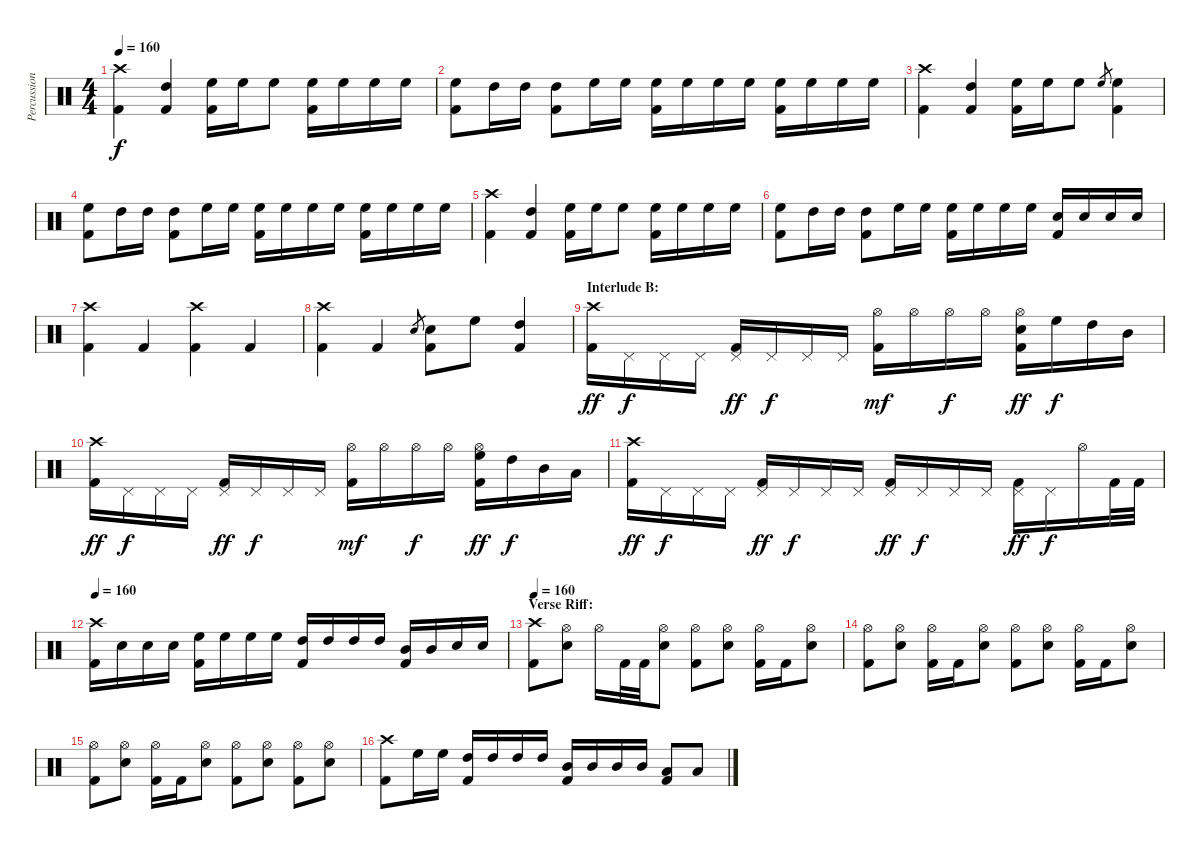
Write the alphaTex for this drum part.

\track ("Percussion" "Percussion") {instrument percussion}
\staff {score}
\articulation defaults
\ts (4 4)
\tempo 160
\clef neutral
\ks c
("Crash high (hit)" "Kick (hit) 2").4{dy f} ("High Tom (hit)" "Kick (hit) 2").4 ("High Floor Tom (hit)" "Kick (hit) 2").16 "High Floor Tom (hit)".16 "High Floor Tom (hit)".8 ("High Floor Tom (hit)" "Kick (hit) 2").16 "High Floor Tom (hit)".16 "High Floor Tom (hit)".16 "High Floor Tom (hit)".16 |
("High Floor Tom (hit)" "Kick (hit) 2").8 "High Tom (hit)".16 "High Tom (hit)".16 ("High Tom (hit)" "Kick (hit) 2").8 "High Floor Tom (hit)".16 "High Floor Tom (hit)".16 ("High Floor Tom (hit)" "Kick (hit) 2").16 "High Floor Tom (hit)".16 "High Floor Tom (hit)".16 "High Floor Tom (hit)".16 ("High Floor Tom (hit)" "Kick (hit) 2").16 "High Floor Tom (hit)".16 "High Floor Tom (hit)".16 "High Floor Tom (hit)".16 |
("Crash high (hit)" "Kick (hit) 2").4 ("High Tom (hit)" "Kick (hit) 2").4 ("High Floor Tom (hit)" "Kick (hit) 2").16 "High Floor Tom (hit)".16 "High Floor Tom (hit)".8 "High Floor Tom (hit)".8{gr} ("High Floor Tom (hit)" "Kick (hit) 2").4 |
("High Floor Tom (hit)" "Kick (hit) 2").8 "High Tom (hit)".16 "High Tom (hit)".16 ("High Tom (hit)" "Kick (hit) 2").8 "High Floor Tom (hit)".16 "High Floor Tom (hit)".16 ("High Floor Tom (hit)" "Kick (hit) 2").16 "High Floor Tom (hit)".16 "High Floor Tom (hit)".16 "High Floor Tom (hit)".16 ("High Floor Tom (hit)" "Kick (hit) 2").16 "High Floor Tom (hit)".16 "High Floor Tom (hit)".16 "High Floor Tom (hit)".16 |
("Crash high (hit)" "Kick (hit) 2").4 ("High Tom (hit)" "Kick (hit) 2").4 ("High Floor Tom (hit)" "Kick (hit) 2").16 "High Floor Tom (hit)".16 "High Floor Tom (hit)".8 ("High Floor Tom (hit)" "Kick (hit) 2").16 "High Floor Tom (hit)".16 "High Floor Tom (hit)".16 "High Floor Tom (hit)".16 |
("High Floor Tom (hit)" "Kick (hit) 2").8 "High Tom (hit)".16 "High Tom (hit)".16 ("High Tom (hit)" "Kick (hit) 2").8 "High Floor Tom (hit)".16 "High Floor Tom (hit)".16 ("High Floor Tom (hit)" "Kick (hit) 2").16 "High Floor Tom (hit)".16 "High Floor Tom (hit)".16 "High Floor Tom (hit)".16 ("Electric Snare (hit)" "Kick (hit) 2").16 "Electric Snare (hit)".16 "Electric Snare (hit)".16 "Electric Snare (hit)".16 |
("Crash high (hit)" "Kick (hit) 2").4 "Kick (hit) 2".4 ("Crash high (hit)" "Kick (hit) 2").4 "Kick (hit) 2".4 |
("Crash high (hit)" "Kick (hit) 2").4 "Kick (hit) 2".4 "Electric Snare (hit)".8{gr} ("Electric Snare (hit)" "Kick (hit) 2").8 "High Floor Tom (hit)".8 ("High Tom (hit)" "Kick (hit) 2").4 |
\section ("" "Interlude B:")
("Crash high (hit)" "Kick (hit) 2").16{dy ff} "Pedal Hi-Hat (hit)".16{dy f} "Pedal Hi-Hat (hit)".16 "Pedal Hi-Hat (hit)".16 ("Pedal Hi-Hat (hit)" "Kick (hit) 2").16{dy ff} "Pedal Hi-Hat (hit)".16{dy f} "Pedal Hi-Hat (hit)".16 "Pedal Hi-Hat (hit)".16 ("Hi-Hat (open)" "Kick (hit) 2").16{dy mf} "Hi-Hat (open)".16 "Hi-Hat (open)".16{dy f} "Hi-Hat (open)".16 ("Hi-Hat (open)" "Electric Snare (hit)" "Kick (hit) 2").16{dy ff} "High Floor Tom (hit)".16{dy f} "High Tom (hit)".16 "Mid Tom (hit)".16 |
("Crash high (hit)" "Kick (hit) 2").16{dy ff} "Pedal Hi-Hat (hit)".16{dy f} "Pedal Hi-Hat (hit)".16 "Pedal Hi-Hat (hit)".16 ("Pedal Hi-Hat (hit)" "Kick (hit) 2").16{dy ff} "Pedal Hi-Hat (hit)".16{dy f} "Pedal Hi-Hat (hit)".16 "Pedal Hi-Hat (hit)".16 ("Hi-Hat (open)" "Kick (hit) 2").16{dy mf} "Hi-Hat (open)".16 "Hi-Hat (open)".16{dy f} "Hi-Hat (open)".16 ("Hi-Hat (open)" "High Floor Tom (hit)" "Kick (hit) 2").16{dy ff} "High Tom (hit)".16{dy f} "Mid Tom (hit)".16 "Low Tom (hit)".16 |
("Crash high (hit)" "Kick (hit) 2").16{dy ff} "Pedal Hi-Hat (hit)".16{dy f} "Pedal Hi-Hat (hit)".16 "Pedal Hi-Hat (hit)".16 ("Pedal Hi-Hat (hit)" "Kick (hit) 2").16{dy ff} "Pedal Hi-Hat (hit)".16{dy f} "Pedal Hi-Hat (hit)".16 "Pedal Hi-Hat (hit)".16 ("Pedal Hi-Hat (hit)" "Kick (hit) 2").16{dy ff} "Pedal Hi-Hat (hit)".16{dy f} "Pedal Hi-Hat (hit)".16 "Pedal Hi-Hat (hit)".16 ("Pedal Hi-Hat (hit)" "Kick (hit) 2").16{dy ff} "Pedal Hi-Hat (hit)".16{dy f} "Hi-Hat (open)".16 "Kick (hit) 2".32 "Kick (hit) 2".32 |
\tempo 160
("Crash high (hit)" "Kick (hit) 2").16 "Electric Snare (hit)".16 "Electric Snare (hit)".16 "Electric Snare (hit)".16 ("High Floor Tom (hit)" "Kick (hit) 2").16 "High Floor Tom (hit)".16 "High Floor Tom (hit)".16 "High Floor Tom (hit)".16 ("High Tom (hit)" "Kick (hit) 2").16 "High Tom (hit)".16 "High Tom (hit)".16 "High Tom (hit)".16 ("Mid Tom (hit)" "Kick (hit) 2").16 "Mid Tom (hit)".16 "Electric Snare (hit)".16 "Electric Snare (hit)".16 |
\section ("" "Verse Riff:")
\tempo 160
("Crash high (hit)" "Kick (hit) 2").8 ("Hi-Hat (open)" "Electric Snare (hit)").8 "Hi-Hat (open)".16 "Kick (hit) 2".32 "Kick (hit) 2".32 ("Hi-Hat (open)" "Electric Snare (hit)").8 ("Hi-Hat (open)" "Kick (hit) 2").8 ("Hi-Hat (open)" "Electric Snare (hit)").8 ("Hi-Hat (open)" "Kick (hit) 2").16 "Kick (hit) 2".16 ("Hi-Hat (open)" "Electric Snare (hit)").8 |
("Hi-Hat (open)" "Kick (hit) 2").8 ("Hi-Hat (open)" "Electric Snare (hit)").8 ("Hi-Hat (open)" "Kick (hit) 2").16 "Kick (hit) 2".16 ("Hi-Hat (open)" "Electric Snare (hit)").8 ("Hi-Hat (open)" "Kick (hit) 2").8 ("Hi-Hat (open)" "Electric Snare (hit)").8 ("Hi-Hat (open)" "Kick (hit) 2").16 "Kick (hit) 2".16 ("Hi-Hat (open)" "Electric Snare (hit)").8 |
("Hi-Hat (open)" "Kick (hit) 2").8 ("Hi-Hat (open)" "Electric Snare (hit)").8 ("Hi-Hat (open)" "Kick (hit) 2").16 "Kick (hit) 2".16 ("Hi-Hat (open)" "Electric Snare (hit)").8 ("Hi-Hat (open)" "Kick (hit) 2").8 ("Hi-Hat (open)" "Electric Snare (hit)").8 ("Hi-Hat (open)" "Kick (hit) 2").8 ("Hi-Hat (open)" "Electric Snare (hit)").8 |
("Crash high (hit)" "Kick (hit) 2").8 "High Floor Tom (hit)".16 "High Floor Tom (hit)".16 ("High Tom (hit)" "Kick (hit) 2").16 "High Tom (hit)".16 "High Tom (hit)".16 "High Tom (hit)".16 ("Mid Tom (hit)" "Kick (hit) 2").16 "Mid Tom (hit)".16 "Mid Tom (hit)".16 "Mid Tom (hit)".16 ("Low Tom (hit)" "Kick (hit) 2").8 "Low Tom (hit)".8
